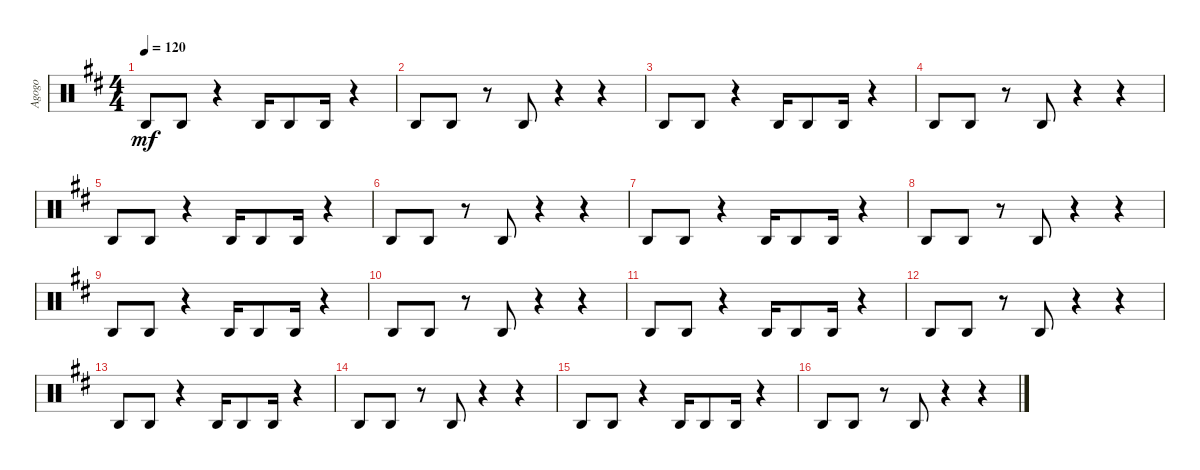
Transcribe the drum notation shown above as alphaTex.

\track ("Agogo" "Agogo") {instrument percussion}
\staff {score}
\articulation defaults
\ts (4 4)
\tempo 120
\clef neutral
\ks d "Agogo high (hit)".8{dy mf} "Agogo high (hit)".8
r.4 "Agogo high (hit)".16 "Agogo high (hit)".8 "Agogo high (hit)".16 r.4 |
"Agogo high (hit)".8 "Agogo high (hit)".8 r.8 "Agogo high (hit)".8 r.4 r.4 |
"Agogo high (hit)".8 "Agogo high (hit)".8 r.4 "Agogo high (hit)".16 "Agogo high (hit)".8 "Agogo high (hit)".16 r.4 |
"Agogo high (hit)".8 "Agogo high (hit)".8 r.8 "Agogo high (hit)".8 r.4 r.4 |
"Agogo high (hit)".8 "Agogo high (hit)".8 r.4 "Agogo high (hit)".16 "Agogo high (hit)".8 "Agogo high (hit)".16 r.4 |
"Agogo high (hit)".8 "Agogo high (hit)".8 r.8 "Agogo high (hit)".8 r.4 r.4 |
"Agogo high (hit)".8 "Agogo high (hit)".8 r.4 "Agogo high (hit)".16 "Agogo high (hit)".8 "Agogo high (hit)".16 r.4 |
"Agogo high (hit)".8 "Agogo high (hit)".8 r.8 "Agogo high (hit)".8 r.4 r.4 |
"Agogo high (hit)".8 "Agogo high (hit)".8 r.4 "Agogo high (hit)".16 "Agogo high (hit)".8 "Agogo high (hit)".16 r.4 |
"Agogo high (hit)".8 "Agogo high (hit)".8 r.8 "Agogo high (hit)".8 r.4 r.4 |
"Agogo high (hit)".8 "Agogo high (hit)".8 r.4 "Agogo high (hit)".16 "Agogo high (hit)".8 "Agogo high (hit)".16 r.4 |
"Agogo high (hit)".8 "Agogo high (hit)".8 r.8 "Agogo high (hit)".8 r.4 r.4 |
"Agogo high (hit)".8 "Agogo high (hit)".8 r.4 "Agogo high (hit)".16 "Agogo high (hit)".8 "Agogo high (hit)".16 r.4 |
"Agogo high (hit)".8 "Agogo high (hit)".8 r.8 "Agogo high (hit)".8 r.4 r.4 |
"Agogo high (hit)".8 "Agogo high (hit)".8 r.4 "Agogo high (hit)".16 "Agogo high (hit)".8 "Agogo high (hit)".16 r.4 |
"Agogo high (hit)".8 "Agogo high (hit)".8 r.8 "Agogo high (hit)".8 r.4 r.4
